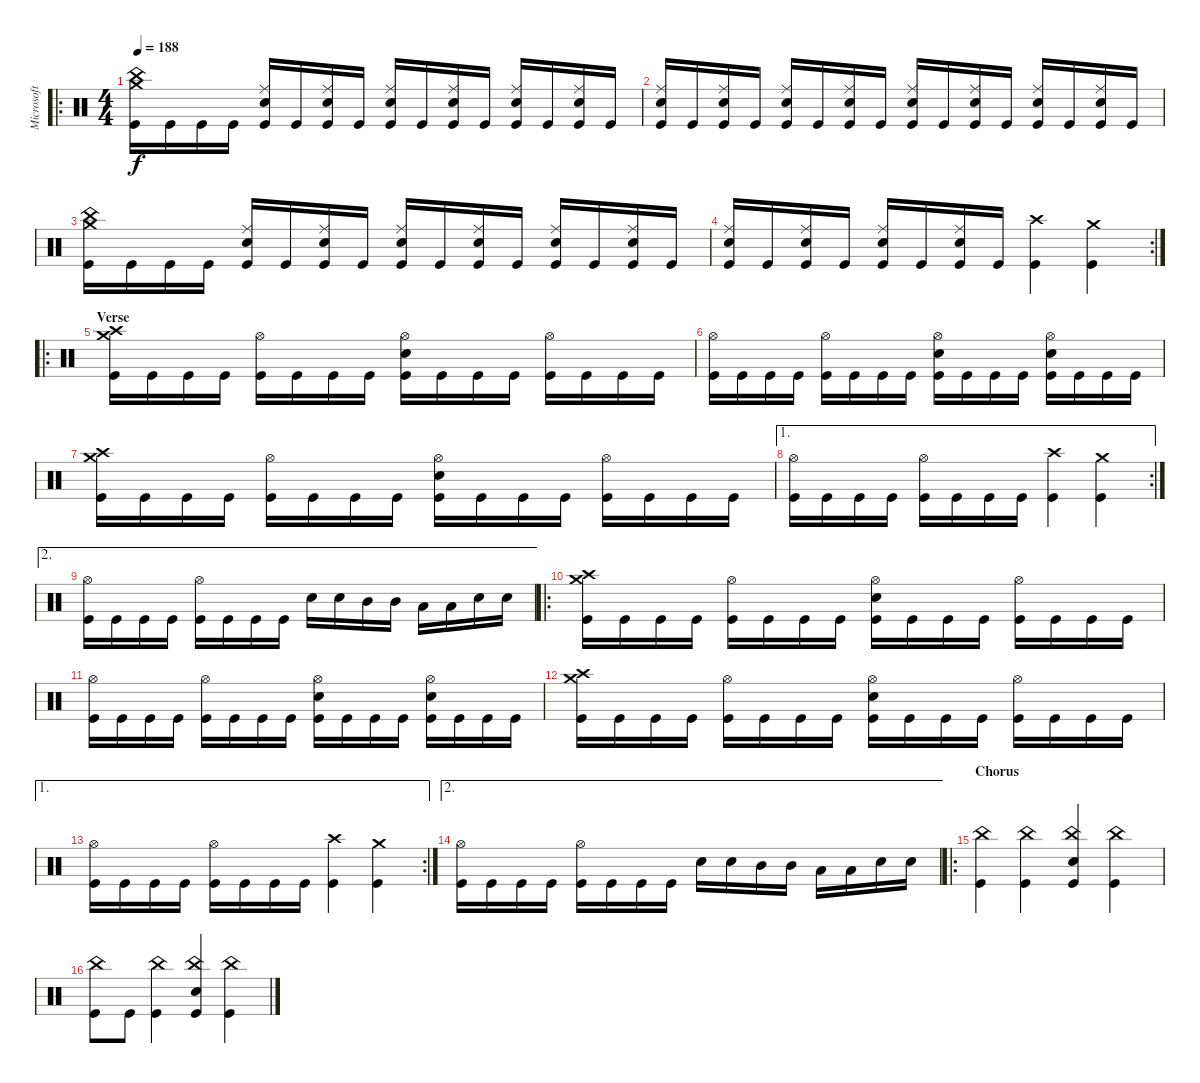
\track ("Microsoft S.A.M." "Microsoft ") {instrument percussion}
\staff {score}
\articulation defaults
\ro
\ts (4 4)
\tempo 188
\clef neutral
\ks c
("Kick (hit)" "Crash medium (hit)" "China (hit)").16{dy f} "Kick (hit)".16 "Kick (hit)".16 "Kick (hit)".16 ("Kick (hit)" "Ride (middle)" "Snare (hit) 2").16 "Kick (hit)".16 ("Kick (hit)" "Ride (middle)" "Snare (hit) 2").16 "Kick (hit)".16 ("Kick (hit)" "Ride (middle)" "Snare (hit) 2").16 "Kick (hit)".16 ("Kick (hit)" "Ride (middle)" "Snare (hit) 2").16 "Kick (hit)".16 ("Kick (hit)" "Ride (middle)" "Snare (hit) 2").16 "Kick (hit)".16 ("Kick (hit)" "Ride (middle)" "Snare (hit) 2").16 "Kick (hit)".16 |
("Kick (hit)" "Ride (middle)" "Snare (hit) 2").16 "Kick (hit)".16 ("Kick (hit)" "Ride (middle)" "Snare (hit) 2").16 "Kick (hit)".16 ("Kick (hit)" "Ride (middle)" "Snare (hit) 2").16 "Kick (hit)".16 ("Kick (hit)" "Ride (middle)" "Snare (hit) 2").16 "Kick (hit)".16 ("Kick (hit)" "Ride (middle)" "Snare (hit) 2").16 "Kick (hit)".16 ("Kick (hit)" "Ride (middle)" "Snare (hit) 2").16 "Kick (hit)".16 ("Kick (hit)" "Ride (middle)" "Snare (hit) 2").16 "Kick (hit)".16 ("Kick (hit)" "Ride (middle)" "Snare (hit) 2").16 "Kick (hit)".16 |
("Kick (hit)" "Crash medium (hit)" "China (hit)").16 "Kick (hit)".16 "Kick (hit)".16 "Kick (hit)".16 ("Kick (hit)" "Ride (middle)" "Snare (hit) 2").16 "Kick (hit)".16 ("Kick (hit)" "Ride (middle)" "Snare (hit) 2").16 "Kick (hit)".16 ("Kick (hit)" "Ride (middle)" "Snare (hit) 2").16 "Kick (hit)".16 ("Kick (hit)" "Ride (middle)" "Snare (hit) 2").16 "Kick (hit)".16 ("Kick (hit)" "Ride (middle)" "Snare (hit) 2").16 "Kick (hit)".16 ("Kick (hit)" "Ride (middle)" "Snare (hit) 2").16 "Kick (hit)".16 |
\rc 2
("Kick (hit)" "Ride (middle)" "Snare (hit) 2").16 "Kick (hit)".16 ("Kick (hit)" "Ride (middle)" "Snare (hit) 2").16 "Kick (hit)".16 ("Kick (hit)" "Ride (middle)" "Snare (hit) 2").16 "Kick (hit)".16 ("Kick (hit)" "Ride (middle)" "Snare (hit) 2").16 "Kick (hit)".16 ("Kick (hit)" "Crash high (hit)").4 ("Kick (hit)" "Crash medium (hit)").4 |
\ro
\section ("" "Verse")
("Kick (hit)" "Crash medium (hit)" "Crash high (hit)").16 "Kick (hit)".16 "Kick (hit)".16 "Kick (hit)".16 ("Kick (hit)" "Hi-Hat (open)").16 "Kick (hit)".16 "Kick (hit)".16 "Kick (hit)".16 ("Kick (hit)" "Hi-Hat (open)" "Snare (hit) 2").16 "Kick (hit)".16 "Kick (hit)".16 "Kick (hit)".16 ("Kick (hit)" "Hi-Hat (open)").16 "Kick (hit)".16 "Kick (hit)".16 "Kick (hit)".16 |
("Kick (hit)" "Hi-Hat (open)").16 "Kick (hit)".16 "Kick (hit)".16 "Kick (hit)".16 ("Kick (hit)" "Hi-Hat (open)").16 "Kick (hit)".16 "Kick (hit)".16 "Kick (hit)".16 ("Kick (hit)" "Hi-Hat (open)" "Snare (hit) 2").16 "Kick (hit)".16 "Kick (hit)".16 "Kick (hit)".16 ("Kick (hit)" "Hi-Hat (open)" "Snare (hit) 2").16 "Kick (hit)".16 "Kick (hit)".16 "Kick (hit)".16 |
("Kick (hit)" "Crash medium (hit)" "Crash high (hit)").16 "Kick (hit)".16 "Kick (hit)".16 "Kick (hit)".16 ("Kick (hit)" "Hi-Hat (open)").16 "Kick (hit)".16 "Kick (hit)".16 "Kick (hit)".16 ("Kick (hit)" "Hi-Hat (open)" "Snare (hit) 2").16 "Kick (hit)".16 "Kick (hit)".16 "Kick (hit)".16 ("Kick (hit)" "Hi-Hat (open)").16 "Kick (hit)".16 "Kick (hit)".16 "Kick (hit)".16 |
\ae 1
\rc 2
("Kick (hit)" "Hi-Hat (open)").16 "Kick (hit)".16 "Kick (hit)".16 "Kick (hit)".16 ("Kick (hit)" "Hi-Hat (open)").16 "Kick (hit)".16 "Kick (hit)".16 "Kick (hit)".16 ("Kick (hit)" "Crash high (hit)").4 ("Kick (hit)" "Crash medium (hit)").4 |
\ae 2
("Kick (hit)" "Hi-Hat (open)").16 "Kick (hit)".16 "Kick (hit)".16 "Kick (hit)".16 ("Kick (hit)" "Hi-Hat (open)").16 "Kick (hit)".16 "Kick (hit)".16 "Kick (hit)".16 "Snare (hit) 2".16 "Snare (hit) 2".16 "Mid Tom (hit)".16 "Mid Tom (hit)".16 "Low Tom (hit)".16 "Low Tom (hit)".16 "Snare (hit) 2".16 "Snare (hit) 2".16 |
\ro
("Kick (hit)" "Crash medium (hit)" "Crash high (hit)").16 "Kick (hit)".16 "Kick (hit)".16 "Kick (hit)".16 ("Kick (hit)" "Hi-Hat (open)").16 "Kick (hit)".16 "Kick (hit)".16 "Kick (hit)".16 ("Kick (hit)" "Hi-Hat (open)" "Snare (hit) 2").16 "Kick (hit)".16 "Kick (hit)".16 "Kick (hit)".16 ("Kick (hit)" "Hi-Hat (open)").16 "Kick (hit)".16 "Kick (hit)".16 "Kick (hit)".16 |
("Kick (hit)" "Hi-Hat (open)").16 "Kick (hit)".16 "Kick (hit)".16 "Kick (hit)".16 ("Kick (hit)" "Hi-Hat (open)").16 "Kick (hit)".16 "Kick (hit)".16 "Kick (hit)".16 ("Kick (hit)" "Hi-Hat (open)" "Snare (hit) 2").16 "Kick (hit)".16 "Kick (hit)".16 "Kick (hit)".16 ("Kick (hit)" "Hi-Hat (open)" "Snare (hit) 2").16 "Kick (hit)".16 "Kick (hit)".16 "Kick (hit)".16 |
("Kick (hit)" "Crash medium (hit)" "Crash high (hit)").16 "Kick (hit)".16 "Kick (hit)".16 "Kick (hit)".16 ("Kick (hit)" "Hi-Hat (open)").16 "Kick (hit)".16 "Kick (hit)".16 "Kick (hit)".16 ("Kick (hit)" "Hi-Hat (open)" "Snare (hit) 2").16 "Kick (hit)".16 "Kick (hit)".16 "Kick (hit)".16 ("Kick (hit)" "Hi-Hat (open)").16 "Kick (hit)".16 "Kick (hit)".16 "Kick (hit)".16 |
\ae 1
\rc 2
("Kick (hit)" "Hi-Hat (open)").16 "Kick (hit)".16 "Kick (hit)".16 "Kick (hit)".16 ("Kick (hit)" "Hi-Hat (open)").16 "Kick (hit)".16 "Kick (hit)".16 "Kick (hit)".16 ("Kick (hit)" "Crash high (hit)").4 ("Kick (hit)" "Crash medium (hit)").4 |
\ae 2
("Kick (hit)" "Hi-Hat (open)").16 "Kick (hit)".16 "Kick (hit)".16 "Kick (hit)".16 ("Kick (hit)" "Hi-Hat (open)").16 "Kick (hit)".16 "Kick (hit)".16 "Kick (hit)".16 "Snare (hit) 2".16 "Snare (hit) 2".16 "Mid Tom (hit)".16 "Mid Tom (hit)".16 "Low Tom (hit)".16 "Low Tom (hit)".16 "Snare (hit) 2".16 "Snare (hit) 2".16 |
\ro
\section ("" "Chorus")
("Kick (hit)" "China (hit)").4 ("Kick (hit)" "China (hit)").4 ("Kick (hit)" "China (hit)" "Snare (hit) 2").4 ("Kick (hit)" "China (hit)").4 |
("Kick (hit)" "China (hit)").8 "Kick (hit)".8 ("Kick (hit)" "China (hit)").4 ("Kick (hit)" "China (hit)" "Snare (hit) 2").4 ("Kick (hit)" "China (hit)").4
